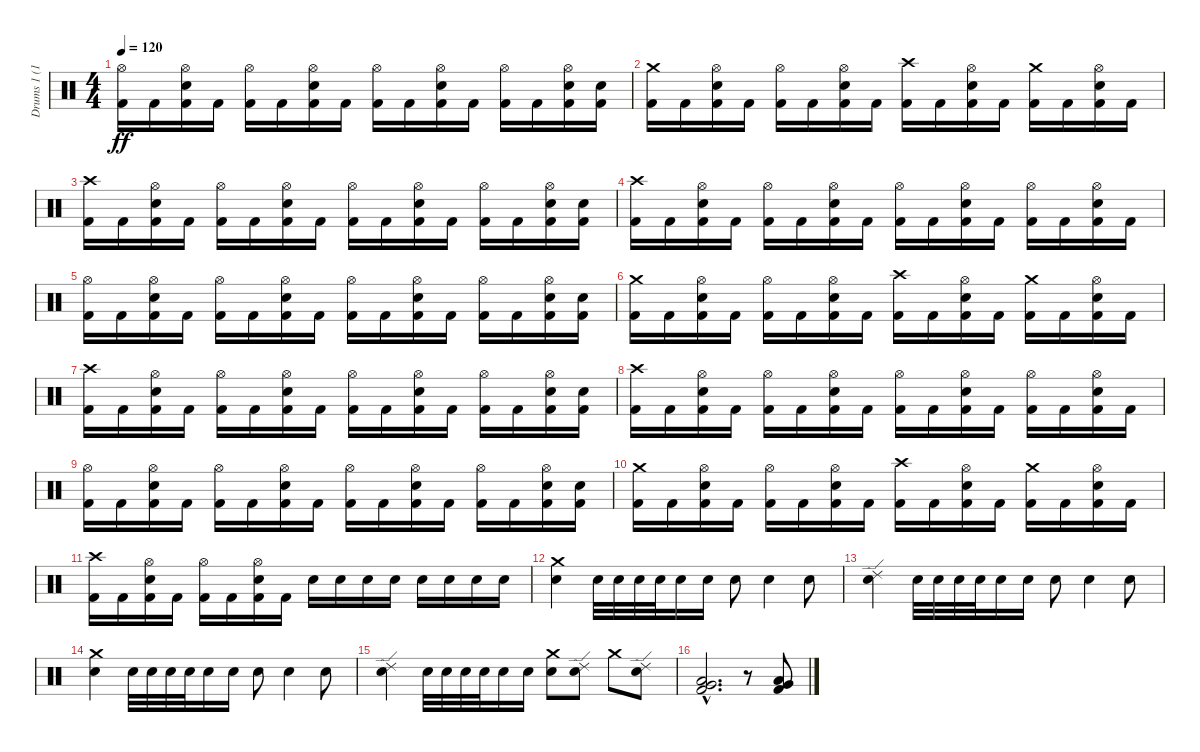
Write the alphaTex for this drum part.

\track ("Drums 1 (16)" "Drums 1 (1") {instrument percussion}
\staff {score}
\articulation defaults
\ts (4 4)
\tempo 120
\clef neutral
\ks c
("Kick (hit) 2" "Hi-Hat (open)").16{dy ff} "Kick (hit) 2".16 ("Kick (hit) 2" "Snare (hit) 2" "Hi-Hat (open)").16 "Kick (hit) 2".16 ("Kick (hit) 2" "Hi-Hat (open)").16 "Kick (hit) 2".16 ("Kick (hit) 2" "Snare (hit) 2" "Hi-Hat (open)").16 "Kick (hit) 2".16 ("Kick (hit) 2" "Hi-Hat (open)").16 "Kick (hit) 2".16 ("Kick (hit) 2" "Snare (hit) 2" "Hi-Hat (open)").16 "Kick (hit) 2".16 ("Kick (hit) 2" "Hi-Hat (open)").16 "Kick (hit) 2".16 ("Kick (hit) 2" "Snare (hit) 2" "Hi-Hat (open)").16 ("Kick (hit) 2" "Snare (hit) 2").16 |
("Kick (hit) 2" "Crash medium (hit)").16 "Kick (hit) 2".16 ("Kick (hit) 2" "Snare (hit) 2" "Hi-Hat (open)").16 "Kick (hit) 2".16 ("Kick (hit) 2" "Hi-Hat (open)").16 "Kick (hit) 2".16 ("Kick (hit) 2" "Snare (hit) 2" "Hi-Hat (open)").16 "Kick (hit) 2".16 ("Kick (hit) 2" "Crash high (hit)").16 "Kick (hit) 2".16 ("Kick (hit) 2" "Snare (hit) 2" "Hi-Hat (open)").16 "Kick (hit) 2".16 ("Kick (hit) 2" "Crash medium (hit)").16 "Kick (hit) 2".16 ("Kick (hit) 2" "Snare (hit) 2" "Hi-Hat (open)").16 "Kick (hit) 2".16 |
("Kick (hit) 2" "Crash high (hit)").16 "Kick (hit) 2".16 ("Kick (hit) 2" "Snare (hit) 2" "Hi-Hat (open)").16 "Kick (hit) 2".16 ("Kick (hit) 2" "Hi-Hat (open)").16 "Kick (hit) 2".16 ("Kick (hit) 2" "Snare (hit) 2" "Hi-Hat (open)").16 "Kick (hit) 2".16 ("Kick (hit) 2" "Hi-Hat (open)").16 "Kick (hit) 2".16 ("Kick (hit) 2" "Snare (hit) 2" "Hi-Hat (open)").16 "Kick (hit) 2".16 ("Kick (hit) 2" "Hi-Hat (open)").16 "Kick (hit) 2".16 ("Kick (hit) 2" "Snare (hit) 2" "Hi-Hat (open)").16 ("Kick (hit) 2" "Snare (hit) 2").16 |
("Kick (hit) 2" "Crash high (hit)").16 "Kick (hit) 2".16 ("Kick (hit) 2" "Snare (hit) 2" "Hi-Hat (open)").16 "Kick (hit) 2".16 ("Kick (hit) 2" "Hi-Hat (open)").16 "Kick (hit) 2".16 ("Kick (hit) 2" "Snare (hit) 2" "Hi-Hat (open)").16 "Kick (hit) 2".16 ("Kick (hit) 2" "Hi-Hat (open)").16 "Kick (hit) 2".16 ("Kick (hit) 2" "Snare (hit) 2" "Hi-Hat (open)").16 "Kick (hit) 2".16 ("Kick (hit) 2" "Hi-Hat (open)").16 "Kick (hit) 2".16 ("Kick (hit) 2" "Snare (hit) 2" "Hi-Hat (open)").16 "Kick (hit) 2".16 |
("Kick (hit) 2" "Hi-Hat (open)").16 "Kick (hit) 2".16 ("Kick (hit) 2" "Snare (hit) 2" "Hi-Hat (open)").16 "Kick (hit) 2".16 ("Kick (hit) 2" "Hi-Hat (open)").16 "Kick (hit) 2".16 ("Kick (hit) 2" "Snare (hit) 2" "Hi-Hat (open)").16 "Kick (hit) 2".16 ("Kick (hit) 2" "Hi-Hat (open)").16 "Kick (hit) 2".16 ("Kick (hit) 2" "Snare (hit) 2" "Hi-Hat (open)").16 "Kick (hit) 2".16 ("Kick (hit) 2" "Hi-Hat (open)").16 "Kick (hit) 2".16 ("Kick (hit) 2" "Snare (hit) 2" "Hi-Hat (open)").16 ("Kick (hit) 2" "Snare (hit) 2").16 |
("Kick (hit) 2" "Crash medium (hit)").16 "Kick (hit) 2".16 ("Kick (hit) 2" "Snare (hit) 2" "Hi-Hat (open)").16 "Kick (hit) 2".16 ("Kick (hit) 2" "Hi-Hat (open)").16 "Kick (hit) 2".16 ("Kick (hit) 2" "Snare (hit) 2" "Hi-Hat (open)").16 "Kick (hit) 2".16 ("Kick (hit) 2" "Crash high (hit)").16 "Kick (hit) 2".16 ("Kick (hit) 2" "Snare (hit) 2" "Hi-Hat (open)").16 "Kick (hit) 2".16 ("Kick (hit) 2" "Crash medium (hit)").16 "Kick (hit) 2".16 ("Kick (hit) 2" "Snare (hit) 2" "Hi-Hat (open)").16 "Kick (hit) 2".16 |
("Kick (hit) 2" "Crash high (hit)").16 "Kick (hit) 2".16 ("Kick (hit) 2" "Snare (hit) 2" "Hi-Hat (open)").16 "Kick (hit) 2".16 ("Kick (hit) 2" "Hi-Hat (open)").16 "Kick (hit) 2".16 ("Kick (hit) 2" "Snare (hit) 2" "Hi-Hat (open)").16 "Kick (hit) 2".16 ("Kick (hit) 2" "Hi-Hat (open)").16 "Kick (hit) 2".16 ("Kick (hit) 2" "Snare (hit) 2" "Hi-Hat (open)").16 "Kick (hit) 2".16 ("Kick (hit) 2" "Hi-Hat (open)").16 "Kick (hit) 2".16 ("Kick (hit) 2" "Snare (hit) 2" "Hi-Hat (open)").16 ("Kick (hit) 2" "Snare (hit) 2").16 |
("Kick (hit) 2" "Crash high (hit)").16 "Kick (hit) 2".16 ("Kick (hit) 2" "Snare (hit) 2" "Hi-Hat (open)").16 "Kick (hit) 2".16 ("Kick (hit) 2" "Hi-Hat (open)").16 "Kick (hit) 2".16 ("Kick (hit) 2" "Snare (hit) 2" "Hi-Hat (open)").16 "Kick (hit) 2".16 ("Kick (hit) 2" "Hi-Hat (open)").16 "Kick (hit) 2".16 ("Kick (hit) 2" "Snare (hit) 2" "Hi-Hat (open)").16 "Kick (hit) 2".16 ("Kick (hit) 2" "Hi-Hat (open)").16 "Kick (hit) 2".16 ("Kick (hit) 2" "Snare (hit) 2" "Hi-Hat (open)").16 "Kick (hit) 2".16 |
("Kick (hit) 2" "Hi-Hat (open)").16 "Kick (hit) 2".16 ("Kick (hit) 2" "Snare (hit) 2" "Hi-Hat (open)").16 "Kick (hit) 2".16 ("Kick (hit) 2" "Hi-Hat (open)").16 "Kick (hit) 2".16 ("Kick (hit) 2" "Snare (hit) 2" "Hi-Hat (open)").16 "Kick (hit) 2".16 ("Kick (hit) 2" "Hi-Hat (open)").16 "Kick (hit) 2".16 ("Kick (hit) 2" "Snare (hit) 2" "Hi-Hat (open)").16 "Kick (hit) 2".16 ("Kick (hit) 2" "Hi-Hat (open)").16 "Kick (hit) 2".16 ("Kick (hit) 2" "Snare (hit) 2" "Hi-Hat (open)").16 ("Kick (hit) 2" "Snare (hit) 2").16 |
("Kick (hit) 2" "Crash medium (hit)").16 "Kick (hit) 2".16 ("Kick (hit) 2" "Snare (hit) 2" "Hi-Hat (open)").16 "Kick (hit) 2".16 ("Kick (hit) 2" "Hi-Hat (open)").16 "Kick (hit) 2".16 ("Kick (hit) 2" "Snare (hit) 2" "Hi-Hat (open)").16 "Kick (hit) 2".16 ("Kick (hit) 2" "Crash high (hit)").16 "Kick (hit) 2".16 ("Kick (hit) 2" "Snare (hit) 2" "Hi-Hat (open)").16 "Kick (hit) 2".16 ("Kick (hit) 2" "Crash medium (hit)").16 "Kick (hit) 2".16 ("Kick (hit) 2" "Snare (hit) 2" "Hi-Hat (open)").16 "Kick (hit) 2".16 |
("Kick (hit) 2" "Crash high (hit)").16 "Kick (hit) 2".16 ("Kick (hit) 2" "Snare (hit) 2" "Hi-Hat (open)").16 "Kick (hit) 2".16 ("Kick (hit) 2" "Hi-Hat (open)").16 "Kick (hit) 2".16 ("Kick (hit) 2" "Snare (hit) 2" "Hi-Hat (open)").16 "Kick (hit) 2".16 "Snare (hit) 2".16 "Snare (hit) 2".16 "Snare (hit) 2".16 "Snare (hit) 2".16 "Snare (hit) 2".16 "Snare (hit) 2".16 "Snare (hit) 2".16 "Snare (hit) 2".16 |
("Electric Snare (hit)" "Crash medium (hit)").4 "Electric Snare (hit)".32 "Electric Snare (hit)".32 "Electric Snare (hit)".32 "Electric Snare (hit)".32 "Electric Snare (hit)".16 "Electric Snare (hit)".16 "Electric Snare (hit)".8 "Electric Snare (hit)".4 "Electric Snare (hit)".8 |
("Electric Snare (hit)" "Ride (edge) 2").4 "Electric Snare (hit)".32 "Electric Snare (hit)".32 "Electric Snare (hit)".32 "Electric Snare (hit)".32 "Electric Snare (hit)".16 "Electric Snare (hit)".16 "Electric Snare (hit)".8 "Electric Snare (hit)".4 "Electric Snare (hit)".8 |
("Electric Snare (hit)" "Crash medium (hit)").4 "Electric Snare (hit)".32 "Electric Snare (hit)".32 "Electric Snare (hit)".32 "Electric Snare (hit)".32 "Electric Snare (hit)".16 "Electric Snare (hit)".16 "Electric Snare (hit)".8 "Electric Snare (hit)".4 "Electric Snare (hit)".8 |
("Electric Snare (hit)" "Ride (edge) 2").4 "Electric Snare (hit)".32 "Electric Snare (hit)".32 "Electric Snare (hit)".32 "Electric Snare (hit)".32 "Electric Snare (hit)".16 "Electric Snare (hit)".16 ("Electric Snare (hit)" "Crash medium (hit)").8 ("Electric Snare (hit)" "Ride (edge) 2").8 "Crash medium (hit)".8 ("Electric Snare (hit)" "Ride (edge) 2").8 |
("Kick (hit) 2"{hac} "Low Floor Tom (hit)"{hac} "Very Low Tom (hit)"{hac}).2{d balance 0} r.8 ("Kick (hit) 2" "Low Floor Tom (hit)" "Very Low Tom (hit)").8
